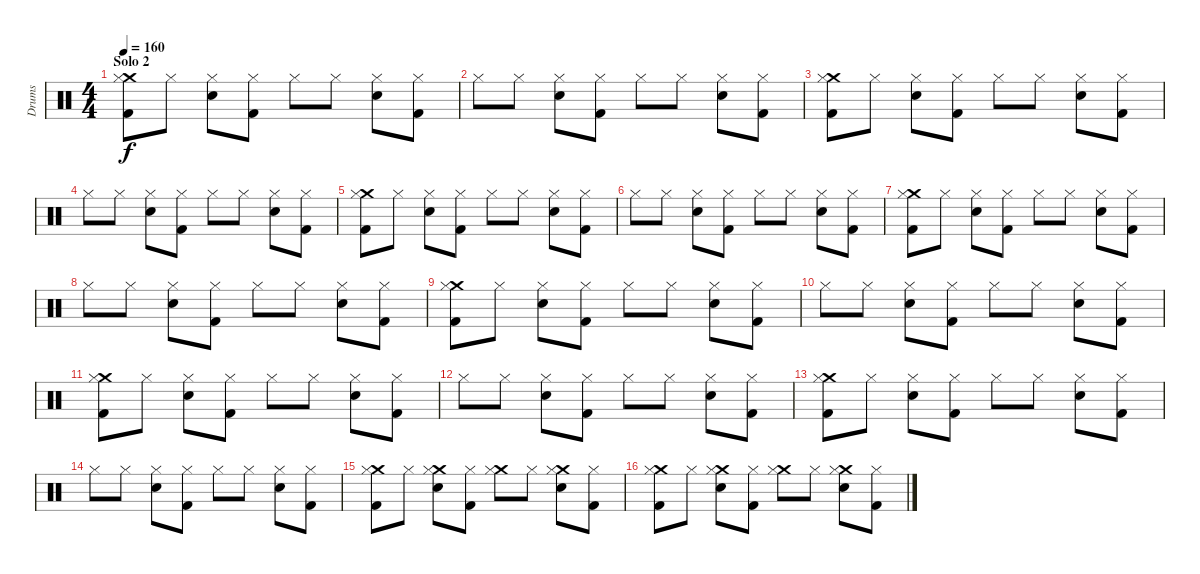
\track ("Drums" "Drums") {instrument percussion}
\staff {score}
\articulation defaults
\ts (4 4)
\section ("" "Solo 2")
\tempo 160
\clef neutral
\ks c
("Crash medium (hit)" "Hi-Hat (closed)" "Kick (hit) 2").8{dy f} "Hi-Hat (closed)".8 ("Hi-Hat (closed)" "Snare (hit) 2").8 ("Hi-Hat (closed)" "Kick (hit) 2").8 "Hi-Hat (closed)".8 "Hi-Hat (closed)".8 ("Hi-Hat (closed)" "Snare (hit) 2").8 ("Hi-Hat (closed)" "Kick (hit) 2").8 |
"Hi-Hat (closed)".8 "Hi-Hat (closed)".8 ("Hi-Hat (closed)" "Snare (hit) 2").8 ("Hi-Hat (closed)" "Kick (hit) 2").8 "Hi-Hat (closed)".8 "Hi-Hat (closed)".8 ("Hi-Hat (closed)" "Snare (hit) 2").8 ("Hi-Hat (closed)" "Kick (hit) 2").8 |
("Crash medium (hit)" "Hi-Hat (closed)" "Kick (hit) 2").8 "Hi-Hat (closed)".8 ("Hi-Hat (closed)" "Snare (hit) 2").8 ("Hi-Hat (closed)" "Kick (hit) 2").8 "Hi-Hat (closed)".8 "Hi-Hat (closed)".8 ("Hi-Hat (closed)" "Snare (hit) 2").8 ("Hi-Hat (closed)" "Kick (hit) 2").8 |
"Hi-Hat (closed)".8 "Hi-Hat (closed)".8 ("Hi-Hat (closed)" "Snare (hit) 2").8 ("Hi-Hat (closed)" "Kick (hit) 2").8 "Hi-Hat (closed)".8 "Hi-Hat (closed)".8 ("Hi-Hat (closed)" "Snare (hit) 2").8 ("Hi-Hat (closed)" "Kick (hit) 2").8 |
("Crash medium (hit)" "Hi-Hat (closed)" "Kick (hit) 2").8 "Hi-Hat (closed)".8 ("Hi-Hat (closed)" "Snare (hit) 2").8 ("Hi-Hat (closed)" "Kick (hit) 2").8 "Hi-Hat (closed)".8 "Hi-Hat (closed)".8 ("Hi-Hat (closed)" "Snare (hit) 2").8 ("Hi-Hat (closed)" "Kick (hit) 2").8 |
"Hi-Hat (closed)".8 "Hi-Hat (closed)".8 ("Hi-Hat (closed)" "Snare (hit) 2").8 ("Hi-Hat (closed)" "Kick (hit) 2").8 "Hi-Hat (closed)".8 "Hi-Hat (closed)".8 ("Hi-Hat (closed)" "Snare (hit) 2").8 ("Hi-Hat (closed)" "Kick (hit) 2").8 |
("Crash medium (hit)" "Hi-Hat (closed)" "Kick (hit) 2").8 "Hi-Hat (closed)".8 ("Hi-Hat (closed)" "Snare (hit) 2").8 ("Hi-Hat (closed)" "Kick (hit) 2").8 "Hi-Hat (closed)".8 "Hi-Hat (closed)".8 ("Hi-Hat (closed)" "Snare (hit) 2").8 ("Hi-Hat (closed)" "Kick (hit) 2").8 |
"Hi-Hat (closed)".8 "Hi-Hat (closed)".8 ("Hi-Hat (closed)" "Snare (hit) 2").8 ("Hi-Hat (closed)" "Kick (hit) 2").8 "Hi-Hat (closed)".8 "Hi-Hat (closed)".8 ("Hi-Hat (closed)" "Snare (hit) 2").8 ("Hi-Hat (closed)" "Kick (hit) 2").8 |
("Crash medium (hit)" "Hi-Hat (closed)" "Kick (hit) 2").8 "Hi-Hat (closed)".8 ("Hi-Hat (closed)" "Snare (hit) 2").8 ("Hi-Hat (closed)" "Kick (hit) 2").8 "Hi-Hat (closed)".8 "Hi-Hat (closed)".8 ("Hi-Hat (closed)" "Snare (hit) 2").8 ("Hi-Hat (closed)" "Kick (hit) 2").8 |
"Hi-Hat (closed)".8 "Hi-Hat (closed)".8 ("Hi-Hat (closed)" "Snare (hit) 2").8 ("Hi-Hat (closed)" "Kick (hit) 2").8 "Hi-Hat (closed)".8 "Hi-Hat (closed)".8 ("Hi-Hat (closed)" "Snare (hit) 2").8 ("Hi-Hat (closed)" "Kick (hit) 2").8 |
("Crash medium (hit)" "Hi-Hat (closed)" "Kick (hit) 2").8 "Hi-Hat (closed)".8 ("Hi-Hat (closed)" "Snare (hit) 2").8 ("Hi-Hat (closed)" "Kick (hit) 2").8 "Hi-Hat (closed)".8 "Hi-Hat (closed)".8 ("Hi-Hat (closed)" "Snare (hit) 2").8 ("Hi-Hat (closed)" "Kick (hit) 2").8 |
"Hi-Hat (closed)".8 "Hi-Hat (closed)".8 ("Hi-Hat (closed)" "Snare (hit) 2").8 ("Hi-Hat (closed)" "Kick (hit) 2").8 "Hi-Hat (closed)".8 "Hi-Hat (closed)".8 ("Hi-Hat (closed)" "Snare (hit) 2").8 ("Hi-Hat (closed)" "Kick (hit) 2").8 |
("Crash medium (hit)" "Hi-Hat (closed)" "Kick (hit) 2").8 "Hi-Hat (closed)".8 ("Hi-Hat (closed)" "Snare (hit) 2").8 ("Hi-Hat (closed)" "Kick (hit) 2").8 "Hi-Hat (closed)".8 "Hi-Hat (closed)".8 ("Hi-Hat (closed)" "Snare (hit) 2").8 ("Hi-Hat (closed)" "Kick (hit) 2").8 |
"Hi-Hat (closed)".8 "Hi-Hat (closed)".8 ("Hi-Hat (closed)" "Snare (hit) 2").8 ("Hi-Hat (closed)" "Kick (hit) 2").8 "Hi-Hat (closed)".8 "Hi-Hat (closed)".8 ("Hi-Hat (closed)" "Snare (hit) 2").8 ("Hi-Hat (closed)" "Kick (hit) 2").8 |
("Crash medium (hit)" "Hi-Hat (closed)" "Kick (hit) 2").8 "Hi-Hat (closed)".8 ("Crash medium (hit)" "Hi-Hat (closed)" "Snare (hit) 2").8 ("Hi-Hat (closed)" "Kick (hit) 2").8 ("Crash medium (hit)" "Hi-Hat (closed)").8 "Hi-Hat (closed)".8 ("Crash medium (hit)" "Hi-Hat (closed)" "Snare (hit) 2").8 ("Hi-Hat (closed)" "Kick (hit) 2").8 |
("Crash medium (hit)" "Hi-Hat (closed)" "Kick (hit) 2").8 "Hi-Hat (closed)".8 ("Crash medium (hit)" "Hi-Hat (closed)" "Snare (hit) 2").8 ("Hi-Hat (closed)" "Kick (hit) 2").8 ("Crash medium (hit)" "Hi-Hat (closed)").8 "Hi-Hat (closed)".8 ("Crash medium (hit)" "Hi-Hat (closed)" "Snare (hit) 2").8 ("Hi-Hat (closed)" "Kick (hit) 2").8
